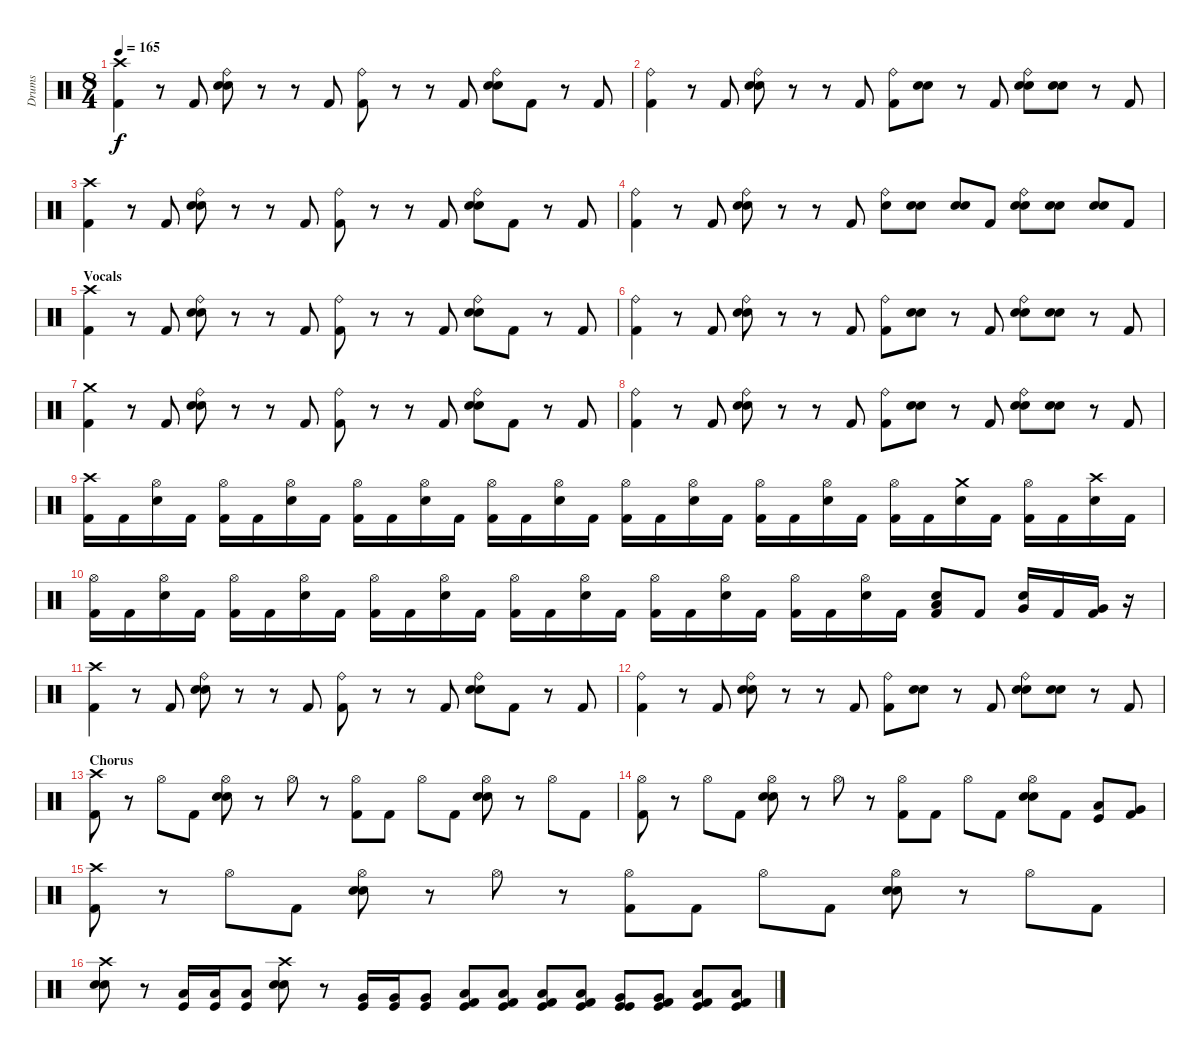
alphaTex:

\track ("Drums" "Drums") {instrument percussion}
\staff {score}
\articulation defaults
\ts (8 4)
\tempo 165
\clef neutral
\ks c
("Crash high (hit)" "Kick (hit) 2").4{dy f} r.8 "Kick (hit) 2".8 ("Ride (bell)" "Electric Snare (hit)" "Snare (hit) 2").8 r.8 r.8 "Kick (hit) 2".8 ("Ride (bell)" "Kick (hit) 2").8 r.8 r.8 "Kick (hit) 2".8 ("Ride (bell)" "Electric Snare (hit)" "Snare (hit) 2").8 "Kick (hit) 2".8 r.8 "Kick (hit) 2".8 |
("Ride (bell)" "Kick (hit) 2").4 r.8 "Kick (hit) 2".8 ("Ride (bell)" "Electric Snare (hit)" "Snare (hit) 2").8 r.8 r.8 "Kick (hit) 2".8 ("Ride (bell)" "Kick (hit) 2").8 ("Electric Snare (hit)" "Snare (hit) 2").8 r.8 "Kick (hit) 2".8 ("Ride (bell)" "Electric Snare (hit)" "Snare (hit) 2").8 ("Electric Snare (hit)" "Snare (hit) 2").8 r.8 "Kick (hit) 2".8 |
("Crash high (hit)" "Kick (hit) 2").4 r.8 "Kick (hit) 2".8 ("Ride (bell)" "Electric Snare (hit)" "Snare (hit) 2").8 r.8 r.8 "Kick (hit) 2".8 ("Ride (bell)" "Kick (hit) 2").8 r.8 r.8 "Kick (hit) 2".8 ("Ride (bell)" "Electric Snare (hit)" "Snare (hit) 2").8 "Kick (hit) 2".8 r.8 "Kick (hit) 2".8 |
("Ride (bell)" "Kick (hit) 2").4 r.8 "Kick (hit) 2".8 ("Ride (bell)" "Electric Snare (hit)" "Snare (hit) 2").8 r.8 r.8 "Kick (hit) 2".8 ("Ride (bell)" "Snare (hit) 2").8 ("Electric Snare (hit)" "Snare (hit) 2").8 ("Electric Snare (hit)" "Snare (hit) 2").8 "Kick (hit) 2".8 ("Ride (bell)" "Electric Snare (hit)" "Snare (hit) 2").8 ("Electric Snare (hit)" "Snare (hit) 2").8 ("Snare (hit) 2" "Electric Snare (hit)").8 "Kick (hit) 2".8 |
\section ("" "Vocals")
("Crash high (hit)" "Kick (hit) 2").4 r.8 "Kick (hit) 2".8 ("Ride (bell)" "Electric Snare (hit)" "Snare (hit) 2").8 r.8 r.8 "Kick (hit) 2".8 ("Ride (bell)" "Kick (hit) 2").8 r.8 r.8 "Kick (hit) 2".8 ("Ride (bell)" "Electric Snare (hit)" "Snare (hit) 2").8 "Kick (hit) 2".8 r.8 "Kick (hit) 2".8 |
("Ride (bell)" "Kick (hit) 2").4 r.8 "Kick (hit) 2".8 ("Ride (bell)" "Electric Snare (hit)" "Snare (hit) 2").8 r.8 r.8 "Kick (hit) 2".8 ("Ride (bell)" "Kick (hit) 2").8 ("Electric Snare (hit)" "Snare (hit) 2").8 r.8 "Kick (hit) 2".8 ("Ride (bell)" "Electric Snare (hit)" "Snare (hit) 2").8 ("Electric Snare (hit)" "Snare (hit) 2").8 r.8 "Kick (hit) 2".8 |
("Crash medium (hit)" "Kick (hit) 2").4 r.8 "Kick (hit) 2".8 ("Ride (bell)" "Electric Snare (hit)" "Snare (hit) 2").8 r.8 r.8 "Kick (hit) 2".8 ("Ride (bell)" "Kick (hit) 2").8 r.8 r.8 "Kick (hit) 2".8 ("Ride (bell)" "Electric Snare (hit)" "Snare (hit) 2").8 "Kick (hit) 2".8 r.8 "Kick (hit) 2".8 |
("Ride (bell)" "Kick (hit) 2").4 r.8 "Kick (hit) 2".8 ("Ride (bell)" "Electric Snare (hit)" "Snare (hit) 2").8 r.8 r.8 "Kick (hit) 2".8 ("Ride (bell)" "Kick (hit) 2").8 ("Electric Snare (hit)" "Snare (hit) 2").8 r.8 "Kick (hit) 2".8 ("Ride (bell)" "Electric Snare (hit)" "Snare (hit) 2").8 ("Electric Snare (hit)" "Snare (hit) 2").8 r.8 "Kick (hit) 2".8 |
("Crash high (hit)" "Kick (hit) 2").16 "Kick (hit) 2".16 ("Hi-Hat (open)" "Snare (hit) 2").16 "Kick (hit) 2".16 ("Hi-Hat (open)" "Kick (hit) 2").16 "Kick (hit) 2".16 ("Hi-Hat (open)" "Snare (hit) 2").16 "Kick (hit) 2".16 ("Hi-Hat (open)" "Kick (hit) 2").16 "Kick (hit) 2".16 ("Hi-Hat (open)" "Snare (hit) 2").16 "Kick (hit) 2".16 ("Hi-Hat (open)" "Kick (hit) 2").16 "Kick (hit) 2".16 ("Hi-Hat (open)" "Snare (hit) 2").16 "Kick (hit) 2".16 ("Hi-Hat (open)" "Kick (hit) 2").16 "Kick (hit) 2".16 ("Hi-Hat (open)" "Snare (hit) 2").16 "Kick (hit) 2".16 ("Hi-Hat (open)" "Kick (hit) 2").16 "Kick (hit) 2".16 ("Hi-Hat (open)" "Snare (hit) 2").16 "Kick (hit) 2".16 ("Hi-Hat (open)" "Kick (hit) 2").16 "Kick (hit) 2".16 ("Crash medium (hit)" "Snare (hit) 2").16 "Kick (hit) 2".16 ("Hi-Hat (open)" "Kick (hit) 2").16 "Kick (hit) 2".16 ("Crash high (hit)" "Snare (hit) 2").16 "Kick (hit) 2".16 |
("Hi-Hat (open)" "Kick (hit) 2").16 "Kick (hit) 2".16 ("Hi-Hat (open)" "Snare (hit) 2").16 "Kick (hit) 2".16 ("Hi-Hat (open)" "Kick (hit) 2").16 "Kick (hit) 2".16 ("Hi-Hat (open)" "Snare (hit) 2").16 "Kick (hit) 2".16 ("Hi-Hat (open)" "Kick (hit) 2").16 "Kick (hit) 2".16 ("Hi-Hat (open)" "Snare (hit) 2").16 "Kick (hit) 2".16 ("Hi-Hat (open)" "Kick (hit) 2").16 "Kick (hit) 2".16 ("Hi-Hat (open)" "Snare (hit) 2").16 "Kick (hit) 2".16 ("Hi-Hat (open)" "Kick (hit) 2").16 "Kick (hit) 2".16 ("Hi-Hat (open)" "Snare (hit) 2").16 "Kick (hit) 2".16 ("Hi-Hat (open)" "Kick (hit) 2").16 "Kick (hit) 2".16 ("Hi-Hat (open)" "Snare (hit) 2").16 "Kick (hit) 2".16 ("Low Tom (hit)" "Snare (hit) 2" "Kick (hit) 2").8 "Kick (hit) 2".8 ("Very Low Tom (hit)" "Snare (hit) 2").16 "Kick (hit) 2".16 ("Very Low Tom (hit)" "Kick (hit) 2").16 r.16 |
("Crash high (hit)" "Kick (hit) 2").4 r.8 "Kick (hit) 2".8 ("Ride (bell)" "Electric Snare (hit)" "Snare (hit) 2").8 r.8 r.8 "Kick (hit) 2".8 ("Ride (bell)" "Kick (hit) 2").8 r.8 r.8 "Kick (hit) 2".8 ("Ride (bell)" "Electric Snare (hit)" "Snare (hit) 2").8 "Kick (hit) 2".8 r.8 "Kick (hit) 2".8 |
("Ride (bell)" "Kick (hit) 2").4 r.8 "Kick (hit) 2".8 ("Ride (bell)" "Electric Snare (hit)" "Snare (hit) 2").8 r.8 r.8 "Kick (hit) 2".8 ("Ride (bell)" "Kick (hit) 2").8 ("Electric Snare (hit)" "Snare (hit) 2").8 r.8 "Kick (hit) 2".8 ("Ride (bell)" "Electric Snare (hit)" "Snare (hit) 2").8 ("Electric Snare (hit)" "Snare (hit) 2").8 r.8 "Kick (hit) 2".8 |
\section ("" "Chorus")
("Crash high (hit)" "Kick (hit) 2").8 r.8 "Hi-Hat (open)".8 "Kick (hit) 2".8 ("Hi-Hat (open)" "Electric Snare (hit)" "Snare (hit) 2").8 r.8 "Hi-Hat (open)".8 r.8 ("Hi-Hat (open)" "Kick (hit) 2").8 "Kick (hit) 2".8 "Hi-Hat (open)".8 "Kick (hit) 2".8 ("Hi-Hat (open)" "Snare (hit) 2" "Electric Snare (hit)").8 r.8 "Hi-Hat (open)".8 "Kick (hit) 2".8 |
("Hi-Hat (open)" "Kick (hit) 2").8 r.8 "Hi-Hat (open)".8 "Kick (hit) 2".8 ("Hi-Hat (open)" "Electric Snare (hit)" "Snare (hit) 2").8 r.8 "Hi-Hat (open)".8 r.8 ("Hi-Hat (open)" "Kick (hit) 2").8 "Kick (hit) 2".8 "Hi-Hat (open)".8 "Kick (hit) 2".8 ("Hi-Hat (open)" "Snare (hit) 2" "Electric Snare (hit)").8 "Kick (hit) 2".8 ("Low Tom (hit)" "Kick (hit)").8 ("Very Low Tom (hit)" "Kick (hit) 2").8 |
("Crash high (hit)" "Kick (hit) 2").8 r.8 "Hi-Hat (open)".8 "Kick (hit) 2".8 ("Hi-Hat (open)" "Electric Snare (hit)" "Snare (hit) 2").8 r.8 "Hi-Hat (open)".8 r.8 ("Hi-Hat (open)" "Kick (hit) 2").8 "Kick (hit) 2".8 "Hi-Hat (open)".8 "Kick (hit) 2".8 ("Hi-Hat (open)" "Snare (hit) 2" "Electric Snare (hit)").8 r.8 "Hi-Hat (open)".8 "Kick (hit) 2".8 |
("Crash high (hit)" "Snare (hit) 2" "Electric Snare (hit)").8 r.8 ("Low Tom (hit)" "Kick (hit)").16 ("Low Tom (hit)" "Kick (hit)").16 ("Low Tom (hit)" "Kick (hit)").8 ("Crash high (hit)" "Snare (hit) 2" "Electric Snare (hit)").8 r.8 ("Very Low Tom (hit)" "Kick (hit)").16 ("Very Low Tom (hit)" "Kick (hit)").16 ("Very Low Tom (hit)" "Kick (hit)").8 ("Low Tom (hit)" "Kick (hit)" "Kick (hit) 2").8 ("Low Tom (hit)" "Kick (hit)" "Kick (hit) 2").8 ("Low Tom (hit)" "Kick (hit)" "Kick (hit) 2").8 ("Low Tom (hit)" "Kick (hit)" "Kick (hit) 2").8 ("Very Low Tom (hit)" "Kick (hit)" "Kick (hit)").8 ("Very Low Tom (hit)" "Kick (hit)" "Kick (hit) 2").8 ("Low Floor Tom (hit)" "Kick (hit)" "Kick (hit) 2").8 ("Low Floor Tom (hit)" "Kick (hit)" "Kick (hit) 2").8
